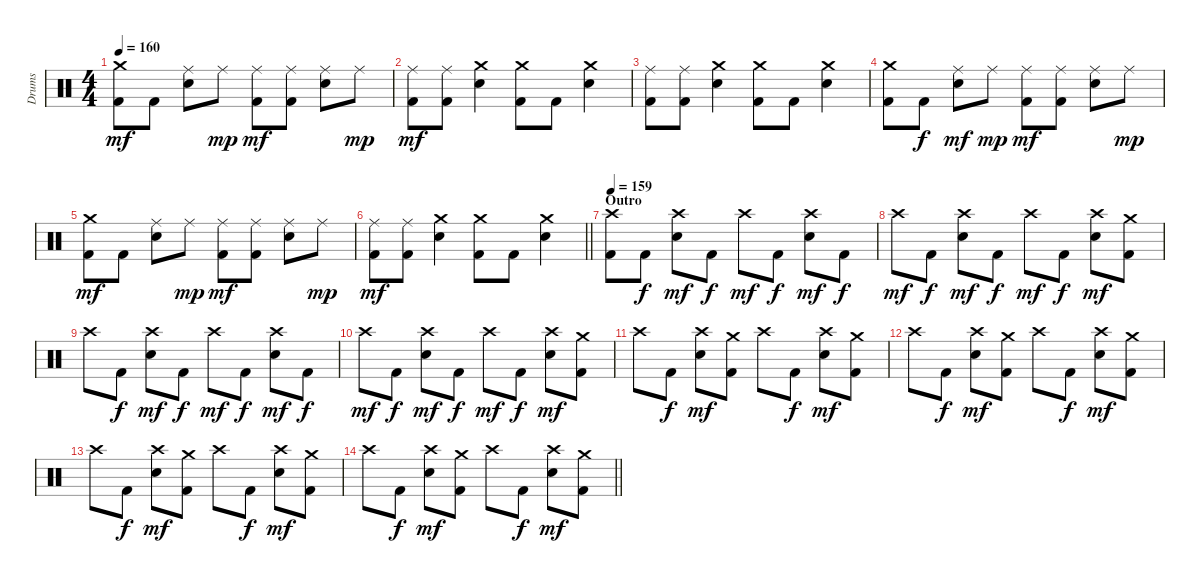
\track ("Drums" "Drums") {instrument percussion}
\staff {score}
\articulation defaults
\ts (4 4)
\tempo 160
\clef neutral
\ks c
("Crash medium (hit)" "Kick (hit) 2").8{dy mf} "Kick (hit) 2".8 ("Ride (middle)" "Electric Snare (hit)").8 "Ride (middle)".8{dy mp} ("Ride (middle)" "Kick (hit) 2").8{dy mf} ("Ride (middle)" "Kick (hit) 2").8 ("Ride (middle)" "Electric Snare (hit)").8 "Ride (middle)".8{dy mp} |
("Ride (middle)" "Kick (hit) 2").8{dy mf} ("Ride (middle)" "Kick (hit) 2").8 ("Crash medium (hit)" "Electric Snare (hit)").4 ("Crash medium (hit)" "Kick (hit) 2").8 "Kick (hit) 2".8 ("Crash medium (hit)" "Electric Snare (hit)").4 |
("Ride (middle)" "Kick (hit) 2").8 ("Ride (middle)" "Kick (hit) 2").8 ("Crash medium (hit)" "Electric Snare (hit)").4 ("Crash medium (hit)" "Kick (hit) 2").8 "Kick (hit) 2".8 ("Crash medium (hit)" "Electric Snare (hit)").4 |
("Crash medium (hit)" "Kick (hit) 2").8 "Kick (hit) 2".8{dy f} ("Ride (middle)" "Electric Snare (hit)").8{dy mf} "Ride (middle)".8{dy mp} ("Ride (middle)" "Kick (hit) 2").8{dy mf} ("Ride (middle)" "Kick (hit) 2").8 ("Ride (middle)" "Electric Snare (hit)").8 "Ride (middle)".8{dy mp} |
("Crash medium (hit)" "Kick (hit) 2").8{dy mf} "Kick (hit) 2".8 ("Ride (middle)" "Electric Snare (hit)").8 "Ride (middle)".8{dy mp} ("Ride (middle)" "Kick (hit) 2").8{dy mf} ("Ride (middle)" "Kick (hit) 2").8 ("Ride (middle)" "Electric Snare (hit)").8 "Ride (middle)".8{dy mp} |
\barLineRight lightlight
("Ride (middle)" "Kick (hit) 2").8{dy mf} ("Ride (middle)" "Kick (hit) 2").8 ("Crash medium (hit)" "Electric Snare (hit)").4 ("Crash medium (hit)" "Kick (hit) 2").8 "Kick (hit) 2".8 ("Crash medium (hit)" "Electric Snare (hit)").4 |
\section ("" "Outro")
\tempo 159
("Crash high (hit)" "Kick (hit) 2").8 "Kick (hit) 2".8{dy f} ("Crash high (hit)" "Electric Snare (hit)").8{dy mf} "Kick (hit) 2".8{dy f} "Crash high (hit)".8{dy mf} "Kick (hit) 2".8{dy f} ("Crash high (hit)" "Electric Snare (hit)").8{dy mf} "Kick (hit) 2".8{dy f} |
"Crash high (hit)".8{dy mf} "Kick (hit) 2".8{dy f} ("Crash high (hit)" "Electric Snare (hit)").8{dy mf} "Kick (hit) 2".8{dy f} "Crash high (hit)".8{dy mf} "Kick (hit) 2".8{dy f} ("Crash high (hit)" "Electric Snare (hit)").8{dy mf} ("Crash medium (hit)" "Kick (hit) 2").8 |
"Crash high (hit)".8 "Kick (hit) 2".8{dy f} ("Crash high (hit)" "Electric Snare (hit)").8{dy mf} "Kick (hit) 2".8{dy f} "Crash high (hit)".8{dy mf} "Kick (hit) 2".8{dy f} ("Crash high (hit)" "Electric Snare (hit)").8{dy mf} "Kick (hit) 2".8{dy f} |
"Crash high (hit)".8{dy mf} "Kick (hit) 2".8{dy f} ("Crash high (hit)" "Electric Snare (hit)").8{dy mf} "Kick (hit) 2".8{dy f} "Crash high (hit)".8{dy mf} "Kick (hit) 2".8{dy f} ("Crash high (hit)" "Electric Snare (hit)").8{dy mf} ("Crash medium (hit)" "Kick (hit) 2").8 |
"Crash high (hit)".8 "Kick (hit) 2".8{dy f} ("Crash high (hit)" "Electric Snare (hit)").8{dy mf} ("Crash medium (hit)" "Kick (hit) 2").8 "Crash high (hit)".8 "Kick (hit) 2".8{dy f} ("Crash high (hit)" "Electric Snare (hit)").8{dy mf} ("Crash medium (hit)" "Kick (hit) 2").8 |
"Crash high (hit)".8 "Kick (hit) 2".8{dy f} ("Crash high (hit)" "Electric Snare (hit)").8{dy mf} ("Crash medium (hit)" "Kick (hit) 2").8 "Crash high (hit)".8 "Kick (hit) 2".8{dy f} ("Crash high (hit)" "Electric Snare (hit)").8{dy mf} ("Crash medium (hit)" "Kick (hit) 2").8 |
"Crash high (hit)".8 "Kick (hit) 2".8{dy f} ("Crash high (hit)" "Electric Snare (hit)").8{dy mf} ("Crash medium (hit)" "Kick (hit) 2").8 "Crash high (hit)".8 "Kick (hit) 2".8{dy f} ("Crash high (hit)" "Electric Snare (hit)").8{dy mf} ("Crash medium (hit)" "Kick (hit) 2").8 |
\barLineRight lightlight "Crash high (hit)".8 "Kick (hit) 2".8{dy f}
("Crash high (hit)" "Electric Snare (hit)").8{dy mf} ("Crash medium (hit)" "Kick (hit) 2").8 "Crash high (hit)".8 "Kick (hit) 2".8{dy f} ("Crash high (hit)" "Electric Snare (hit)").8{dy mf} ("Crash medium (hit)" "Kick (hit) 2").8
